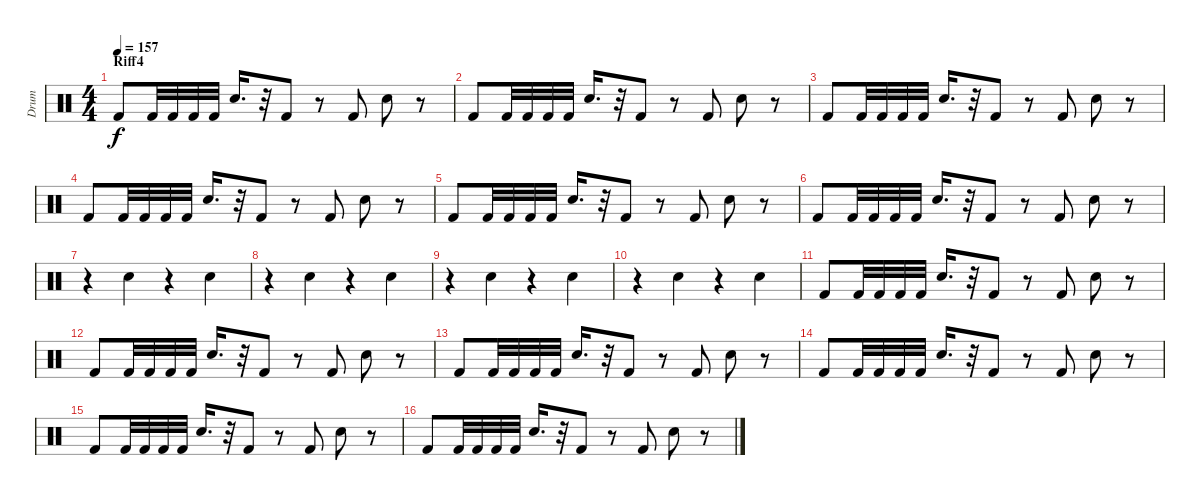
\track ("Drum" "Drum") {instrument percussion}
\staff {score}
\articulation defaults
\ts (4 4)
\section ("" "Riff4")
\tempo 157
\clef neutral
\ks c "Kick (hit) 2".8{dy f} "Kick (hit) 2".32 "Kick (hit) 2".32 "Kick (hit) 2".32 "Kick (hit) 2".32 "Electric Snare (hit)".16{d}
r.32 "Kick (hit) 2".8 r.8 "Kick (hit) 2".8 "Electric Snare (hit)".8 r.8 |
"Kick (hit) 2".8 "Kick (hit) 2".32 "Kick (hit) 2".32 "Kick (hit) 2".32 "Kick (hit) 2".32 "Electric Snare (hit)".16{d} r.32 "Kick (hit) 2".8 r.8 "Kick (hit) 2".8 "Electric Snare (hit)".8 r.8 |
"Kick (hit) 2".8 "Kick (hit) 2".32 "Kick (hit) 2".32 "Kick (hit) 2".32 "Kick (hit) 2".32 "Electric Snare (hit)".16{d} r.32 "Kick (hit) 2".8 r.8 "Kick (hit) 2".8 "Electric Snare (hit)".8 r.8 |
"Kick (hit) 2".8 "Kick (hit) 2".32 "Kick (hit) 2".32 "Kick (hit) 2".32 "Kick (hit) 2".32 "Electric Snare (hit)".16{d} r.32 "Kick (hit) 2".8 r.8 "Kick (hit) 2".8 "Electric Snare (hit)".8 r.8 |
"Kick (hit) 2".8 "Kick (hit) 2".32 "Kick (hit) 2".32 "Kick (hit) 2".32 "Kick (hit) 2".32 "Electric Snare (hit)".16{d} r.32 "Kick (hit) 2".8 r.8 "Kick (hit) 2".8 "Electric Snare (hit)".8 r.8 |
"Kick (hit) 2".8 "Kick (hit) 2".32 "Kick (hit) 2".32 "Kick (hit) 2".32 "Kick (hit) 2".32 "Electric Snare (hit)".16{d} r.32 "Kick (hit) 2".8 r.8 "Kick (hit) 2".8 "Electric Snare (hit)".8 r.8 |
r.4 "Electric Snare (hit)".4 r.4 "Electric Snare (hit)".4 |
r.4 "Electric Snare (hit)".4 r.4 "Electric Snare (hit)".4 |
r.4 "Electric Snare (hit)".4 r.4 "Electric Snare (hit)".4 |
r.4 "Electric Snare (hit)".4 r.4 "Electric Snare (hit)".4 |
"Kick (hit) 2".8 "Kick (hit) 2".32 "Kick (hit) 2".32 "Kick (hit) 2".32 "Kick (hit) 2".32 "Electric Snare (hit)".16{d} r.32 "Kick (hit) 2".8 r.8 "Kick (hit) 2".8 "Electric Snare (hit)".8 r.8 |
"Kick (hit) 2".8 "Kick (hit) 2".32 "Kick (hit) 2".32 "Kick (hit) 2".32 "Kick (hit) 2".32 "Electric Snare (hit)".16{d} r.32 "Kick (hit) 2".8 r.8 "Kick (hit) 2".8 "Electric Snare (hit)".8 r.8 |
"Kick (hit) 2".8 "Kick (hit) 2".32 "Kick (hit) 2".32 "Kick (hit) 2".32 "Kick (hit) 2".32 "Electric Snare (hit)".16{d} r.32 "Kick (hit) 2".8 r.8 "Kick (hit) 2".8 "Electric Snare (hit)".8 r.8 |
"Kick (hit) 2".8 "Kick (hit) 2".32 "Kick (hit) 2".32 "Kick (hit) 2".32 "Kick (hit) 2".32 "Electric Snare (hit)".16{d} r.32 "Kick (hit) 2".8 r.8 "Kick (hit) 2".8 "Electric Snare (hit)".8 r.8 |
"Kick (hit) 2".8 "Kick (hit) 2".32 "Kick (hit) 2".32 "Kick (hit) 2".32 "Kick (hit) 2".32 "Electric Snare (hit)".16{d} r.32 "Kick (hit) 2".8 r.8 "Kick (hit) 2".8 "Electric Snare (hit)".8 r.8 |
"Kick (hit) 2".8 "Kick (hit) 2".32 "Kick (hit) 2".32 "Kick (hit) 2".32 "Kick (hit) 2".32 "Electric Snare (hit)".16{d} r.32 "Kick (hit) 2".8 r.8 "Kick (hit) 2".8 "Electric Snare (hit)".8 r.8
